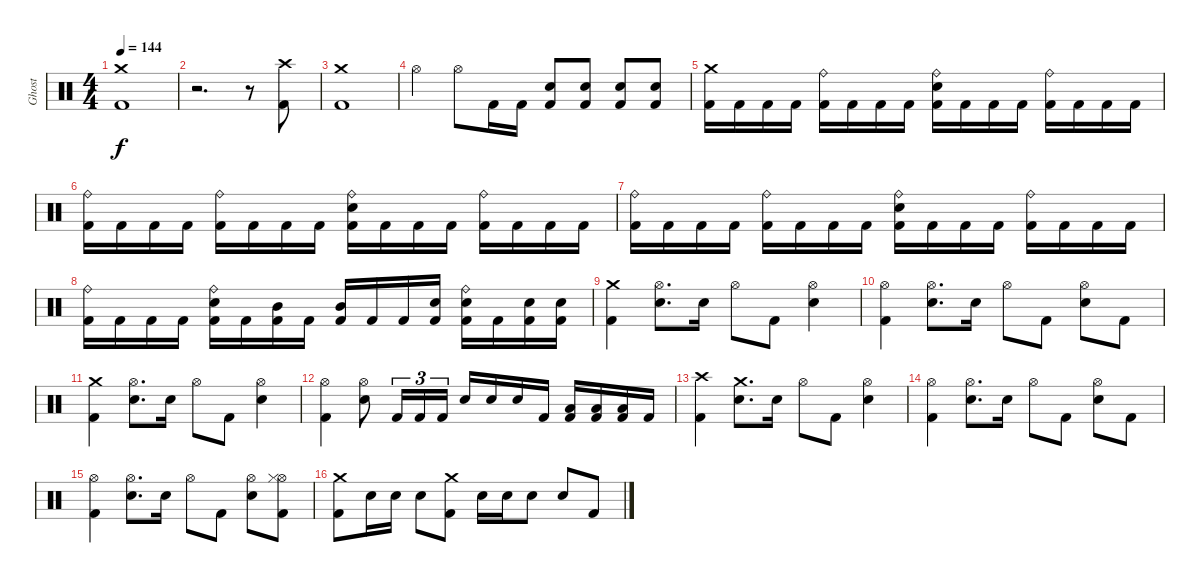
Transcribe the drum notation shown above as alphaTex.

\track ("Ghost" "Ghost") {instrument percussion}
\staff {score}
\articulation defaults
\ts (4 4)
\tempo 144
\clef neutral
\ks c
("Crash medium (hit)" "Kick (hit) 2").1{dy f} |
r.2{d} r.8 ("Crash high (hit)" "Kick (hit) 2").8 |
("Crash medium (hit)" "Kick (hit) 2").1 |
"Hi-Hat (open)".4 "Hi-Hat (open)".8 "Kick (hit) 2".16 "Kick (hit) 2".16 ("Electric Snare (hit)" "Kick (hit) 2").8 ("Electric Snare (hit)" "Kick (hit) 2").8 ("Electric Snare (hit)" "Kick (hit) 2").8 ("Electric Snare (hit)" "Kick (hit) 2").8 |
("Crash medium (hit)" "Kick (hit) 2").16 "Kick (hit) 2".16 "Kick (hit) 2".16 "Kick (hit) 2".16 ("Ride (bell)" "Kick (hit) 2").16 "Kick (hit) 2".16 "Kick (hit) 2".16 "Kick (hit) 2".16 ("Electric Snare (hit)" "Ride (bell)" "Kick (hit) 2").16 "Kick (hit) 2".16 "Kick (hit) 2".16 "Kick (hit) 2".16 ("Ride (bell)" "Kick (hit) 2").16 "Kick (hit) 2".16 "Kick (hit) 2".16 "Kick (hit) 2".16 |
("Ride (bell)" "Kick (hit) 2").16 "Kick (hit) 2".16 "Kick (hit) 2".16 "Kick (hit) 2".16 ("Ride (bell)" "Kick (hit) 2").16 "Kick (hit) 2".16 "Kick (hit) 2".16 "Kick (hit) 2".16 ("Electric Snare (hit)" "Ride (bell)" "Kick (hit) 2").16 "Kick (hit) 2".16 "Kick (hit) 2".16 "Kick (hit) 2".16 ("Ride (bell)" "Kick (hit) 2").16 "Kick (hit) 2".16 "Kick (hit) 2".16 "Kick (hit) 2".16 |
("Ride (bell)" "Kick (hit) 2").16 "Kick (hit) 2".16 "Kick (hit) 2".16 "Kick (hit) 2".16 ("Ride (bell)" "Kick (hit) 2").16 "Kick (hit) 2".16 "Kick (hit) 2".16 "Kick (hit) 2".16 ("Electric Snare (hit)" "Ride (bell)" "Kick (hit) 2").16 "Kick (hit) 2".16 "Kick (hit) 2".16 "Kick (hit) 2".16 ("Ride (bell)" "Kick (hit) 2").16 "Kick (hit) 2".16 "Kick (hit) 2".16 "Kick (hit) 2".16 |
("Ride (bell)" "Kick (hit) 2").16 "Kick (hit) 2".16 "Kick (hit) 2".16 "Kick (hit) 2".16 ("Electric Snare (hit)" "Ride (bell)" "Kick (hit) 2").16 "Kick (hit) 2".16 ("Mid Tom (hit)" "Kick (hit) 2").16 "Kick (hit) 2".16 ("Mid Tom (hit)" "Kick (hit) 2").16 "Kick (hit) 2".16 "Kick (hit) 2".16 ("Electric Snare (hit)" "Kick (hit) 2").16 ("Electric Snare (hit)" "Ride (bell)" "Kick (hit) 2").16 "Kick (hit) 2".16 ("Electric Snare (hit)" "Kick (hit) 2").16 ("Electric Snare (hit)" "Kick (hit) 2").16 |
("Crash medium (hit)" "Kick (hit) 2").4 ("Hi-Hat (open)" "Electric Snare (hit)").8{d} "Electric Snare (hit)".16 "Hi-Hat (open)".8 "Kick (hit) 2".8 ("Hi-Hat (open)" "Electric Snare (hit)").4 |
("Hi-Hat (open)" "Kick (hit) 2").4 ("Hi-Hat (open)" "Electric Snare (hit)").8{d} "Electric Snare (hit)".16 "Hi-Hat (open)".8 "Kick (hit) 2".8 ("Hi-Hat (open)" "Electric Snare (hit)").8 "Kick (hit) 2".8 |
("Crash medium (hit)" "Kick (hit) 2").4 ("Hi-Hat (open)" "Electric Snare (hit)").8{d} "Electric Snare (hit)".16 "Hi-Hat (open)".8 "Kick (hit) 2".8 ("Hi-Hat (open)" "Electric Snare (hit)").4 |
("Hi-Hat (open)" "Kick (hit) 2").4 ("Hi-Hat (open)" "Electric Snare (hit)").8 "Kick (hit) 2".16{tu (3 2)} "Kick (hit) 2".16{tu (3 2)} "Kick (hit) 2".16{tu (3 2)} "Electric Snare (hit)".16 "Electric Snare (hit)".16 "Electric Snare (hit)".16 "Kick (hit) 2".16 ("Low Tom (hit)" "Kick (hit) 2").16 ("Low Tom (hit)" "Kick (hit) 2").16 ("Low Tom (hit)" "Kick (hit) 2").16 "Kick (hit) 2".16 |
("Crash high (hit)" "Kick (hit) 2").4 ("Crash medium (hit)" "Electric Snare (hit)").8{d} "Electric Snare (hit)".16 "Hi-Hat (open)".8 "Kick (hit) 2".8 ("Hi-Hat (open)" "Electric Snare (hit)").4 |
("Hi-Hat (open)" "Kick (hit) 2").4 ("Hi-Hat (open)" "Electric Snare (hit)").8{d} "Electric Snare (hit)".16 "Hi-Hat (open)".8 "Kick (hit) 2".8 ("Hi-Hat (open)" "Electric Snare (hit)").8 "Kick (hit) 2".8 |
("Hi-Hat (open)" "Kick (hit) 2").4 ("Hi-Hat (open)" "Electric Snare (hit)").8{d} "Electric Snare (hit)".16 "Hi-Hat (open)".8 "Kick (hit) 2".8 ("Hi-Hat (open)" "Electric Snare (hit)").8 ("Hi-Hat (open)" "Hi-Hat (closed)" "Kick (hit) 2").8 |
("Crash medium (hit)" "Kick (hit) 2").8 "Electric Snare (hit)".16 "Electric Snare (hit)".16 "Electric Snare (hit)".8 ("Crash medium (hit)" "Kick (hit) 2").8 "Electric Snare (hit)".16 "Electric Snare (hit)".16 "Electric Snare (hit)".8 "Electric Snare (hit)".8 "Kick (hit) 2".8
